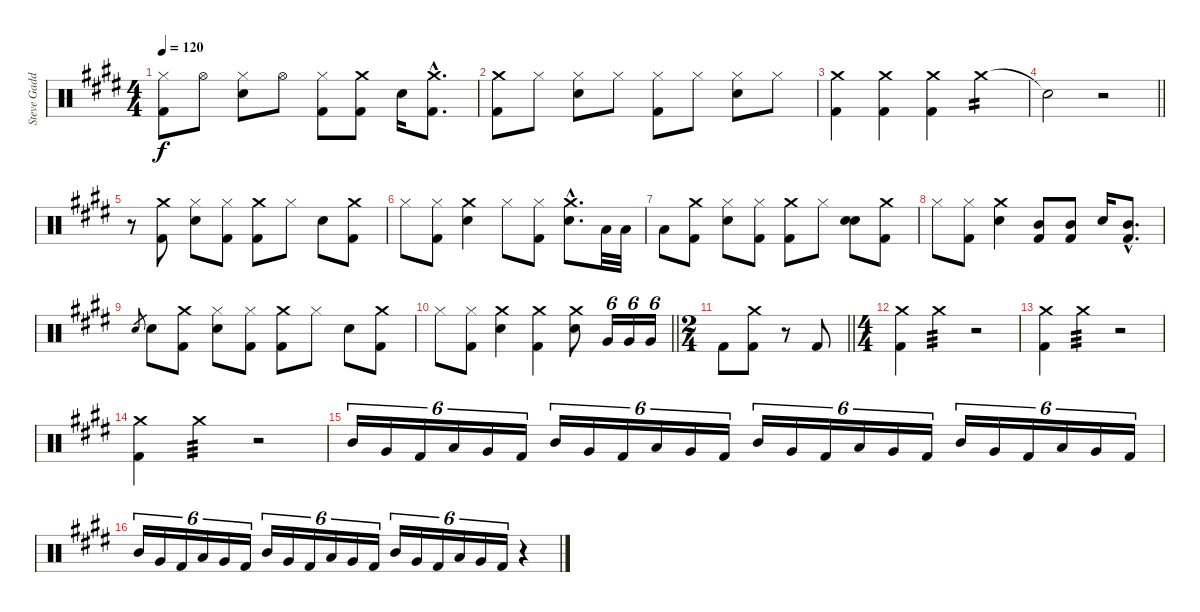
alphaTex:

\track ("Steve Gadd Drums" "Steve Gadd") {instrument percussion}
\staff {score}
\articulation defaults
\ts (4 4)
\tempo 120
\clef neutral
\ks e
("Hi-Hat (closed)" "Kick (hit) 2").8{dy f} "Hi-Hat (open)".8 ("Hi-Hat (closed)" "Snare (hit) 2").8 "Hi-Hat (open)".8 ("Hi-Hat (closed)" "Kick (hit) 2").8 ("Crash medium (hit)" "Kick (hit) 2").8 "Snare (hit) 2".16 ("Crash medium (hit)"{hac} "Kick (hit) 2"{hac}).8{d} |
("Crash medium (hit)" "Kick (hit) 2").8 "Hi-Hat (closed)".8 ("Hi-Hat (closed)" "Snare (hit) 2").8 "Hi-Hat (closed)".8 ("Hi-Hat (closed)" "Kick (hit) 2").8 "Hi-Hat (closed)".8 ("Hi-Hat (closed)" "Snare (hit) 2").8 "Hi-Hat (closed)".8 |
("Crash medium (hit)" "Kick (hit) 2").4 ("Crash medium (hit)" "Kick (hit) 2").4 ("Crash medium (hit)" "Kick (hit) 2").4 "Crash medium (hit)".4{tp 2} |
\barLineRight lightlight "Snare (hit)"{t}.2
r.2 |
r.8 ("Crash medium (hit)" "Kick (hit) 2").8 ("Hi-Hat (closed)" "Snare (hit) 2").8 ("Hi-Hat (closed)" "Kick (hit) 2").8 ("Crash medium (hit)" "Kick (hit) 2").8 "Hi-Hat (closed)".8 "Snare (hit) 2".8 ("Crash medium (hit)" "Kick (hit) 2").8 |
"Hi-Hat (closed)".8 ("Hi-Hat (closed)" "Kick (hit) 2").8 ("Crash medium (hit)" "Snare (hit) 2").4 "Hi-Hat (closed)".8 ("Hi-Hat (closed)" "Kick (hit) 2").8 ("Crash medium (hit)"{hac} "Snare (hit) 2"{hac}).8{d} "Low Tom (hit)".32 "Low Tom (hit)".32 |
"Low Tom (hit)".8 ("Crash medium (hit)" "Kick (hit) 2").8 ("Hi-Hat (closed)" "Snare (hit) 2").8 ("Hi-Hat (closed)" "Kick (hit) 2").8 ("Crash medium (hit)" "Kick (hit) 2").8 "Hi-Hat (closed)".8 ("Snare (hit) 2" "Snare (hit) 2").8 ("Crash medium (hit)" "Kick (hit) 2").8 |
"Hi-Hat (closed)".8 ("Hi-Hat (closed)" "Kick (hit) 2").8 ("Crash medium (hit)" "Snare (hit) 2").4 ("Mid Tom (hit)" "Kick (hit) 2").8 ("Mid Tom (hit)" "Kick (hit) 2").8 "Snare (hit) 2".16 ("Mid Tom (hit)"{hac} "Kick (hit) 2"{hac}).8{d} |
"Snare (hit) 2".8{gr} "Snare (hit) 2".8 ("Crash medium (hit)" "Kick (hit) 2").8 ("Hi-Hat (closed)" "Snare (hit) 2").8 ("Hi-Hat (closed)" "Kick (hit) 2").8 ("Crash medium (hit)" "Kick (hit) 2").8 "Hi-Hat (closed)".8 "Snare (hit) 2".8 ("Crash medium (hit)" "Kick (hit) 2").8 |
\barLineRight lightlight "Hi-Hat (closed)".8
("Hi-Hat (closed)" "Kick (hit) 2").8 ("Crash medium (hit)" "Snare (hit) 2").4 ("Crash medium (hit)" "Kick (hit) 2").4 ("Crash medium (hit)" "Snare (hit) 2").8 "Very Low Tom (hit)".16{tu (6 4)} "Very Low Tom (hit)".16{tu (6 4)} "Very Low Tom (hit)".16{tu (6 4)} |
\ts (2 4)
\barLineRight lightlight "Kick (hit) 2".8
("Crash medium (hit)" "Kick (hit) 2").8 r.8 "Kick (hit) 2".8 |
\ts (4 4)
("Crash medium (hit)" "Kick (hit) 2").4 "Crash medium (hit)".4{tp 3} r.2 |
("Crash medium (hit)" "Kick (hit) 2").4 "Crash medium (hit)".4{tp 3} r.2 |
("Crash medium (hit)" "Kick (hit) 2").4 "Crash medium (hit)".4{tp 3} r.2 |
"Mid Tom (hit)".16{tu (6 4)} "Very Low Tom (hit)".16{tu (6 4)} "Kick (hit) 2".16{tu (6 4)} "Low Tom (hit)".16{tu (6 4)} "Very Low Tom (hit)".16{tu (6 4)} "Kick (hit) 2".16{tu (6 4)} "Mid Tom (hit)".16{tu (6 4)} "Very Low Tom (hit)".16{tu (6 4)} "Kick (hit) 2".16{tu (6 4)} "Low Tom (hit)".16{tu (6 4)} "Very Low Tom (hit)".16{tu (6 4)} "Kick (hit) 2".16{tu (6 4)} "Mid Tom (hit)".16{tu (6 4)} "Very Low Tom (hit)".16{tu (6 4)} "Kick (hit) 2".16{tu (6 4)} "Low Tom (hit)".16{tu (6 4)} "Very Low Tom (hit)".16{tu (6 4)} "Kick (hit) 2".16{tu (6 4)} "Mid Tom (hit)".16{tu (6 4)} "Very Low Tom (hit)".16{tu (6 4)} "Kick (hit) 2".16{tu (6 4)} "Low Tom (hit)".16{tu (6 4)} "Very Low Tom (hit)".16{tu (6 4)} "Kick (hit) 2".16{tu (6 4)} |
"Mid Tom (hit)".16{tu (6 4)} "Very Low Tom (hit)".16{tu (6 4)} "Kick (hit) 2".16{tu (6 4)} "Low Tom (hit)".16{tu (6 4)} "Very Low Tom (hit)".16{tu (6 4)} "Kick (hit) 2".16{tu (6 4)} "Mid Tom (hit)".16{tu (6 4)} "Very Low Tom (hit)".16{tu (6 4)} "Kick (hit) 2".16{tu (6 4)} "Low Tom (hit)".16{tu (6 4)} "Very Low Tom (hit)".16{tu (6 4)} "Kick (hit) 2".16{tu (6 4)} "Mid Tom (hit)".16{tu (6 4)} "Very Low Tom (hit)".16{tu (6 4)} "Kick (hit) 2".16{tu (6 4)} "Low Tom (hit)".16{tu (6 4)} "Very Low Tom (hit)".16{tu (6 4)} "Kick (hit) 2".16{tu (6 4)} r.4
